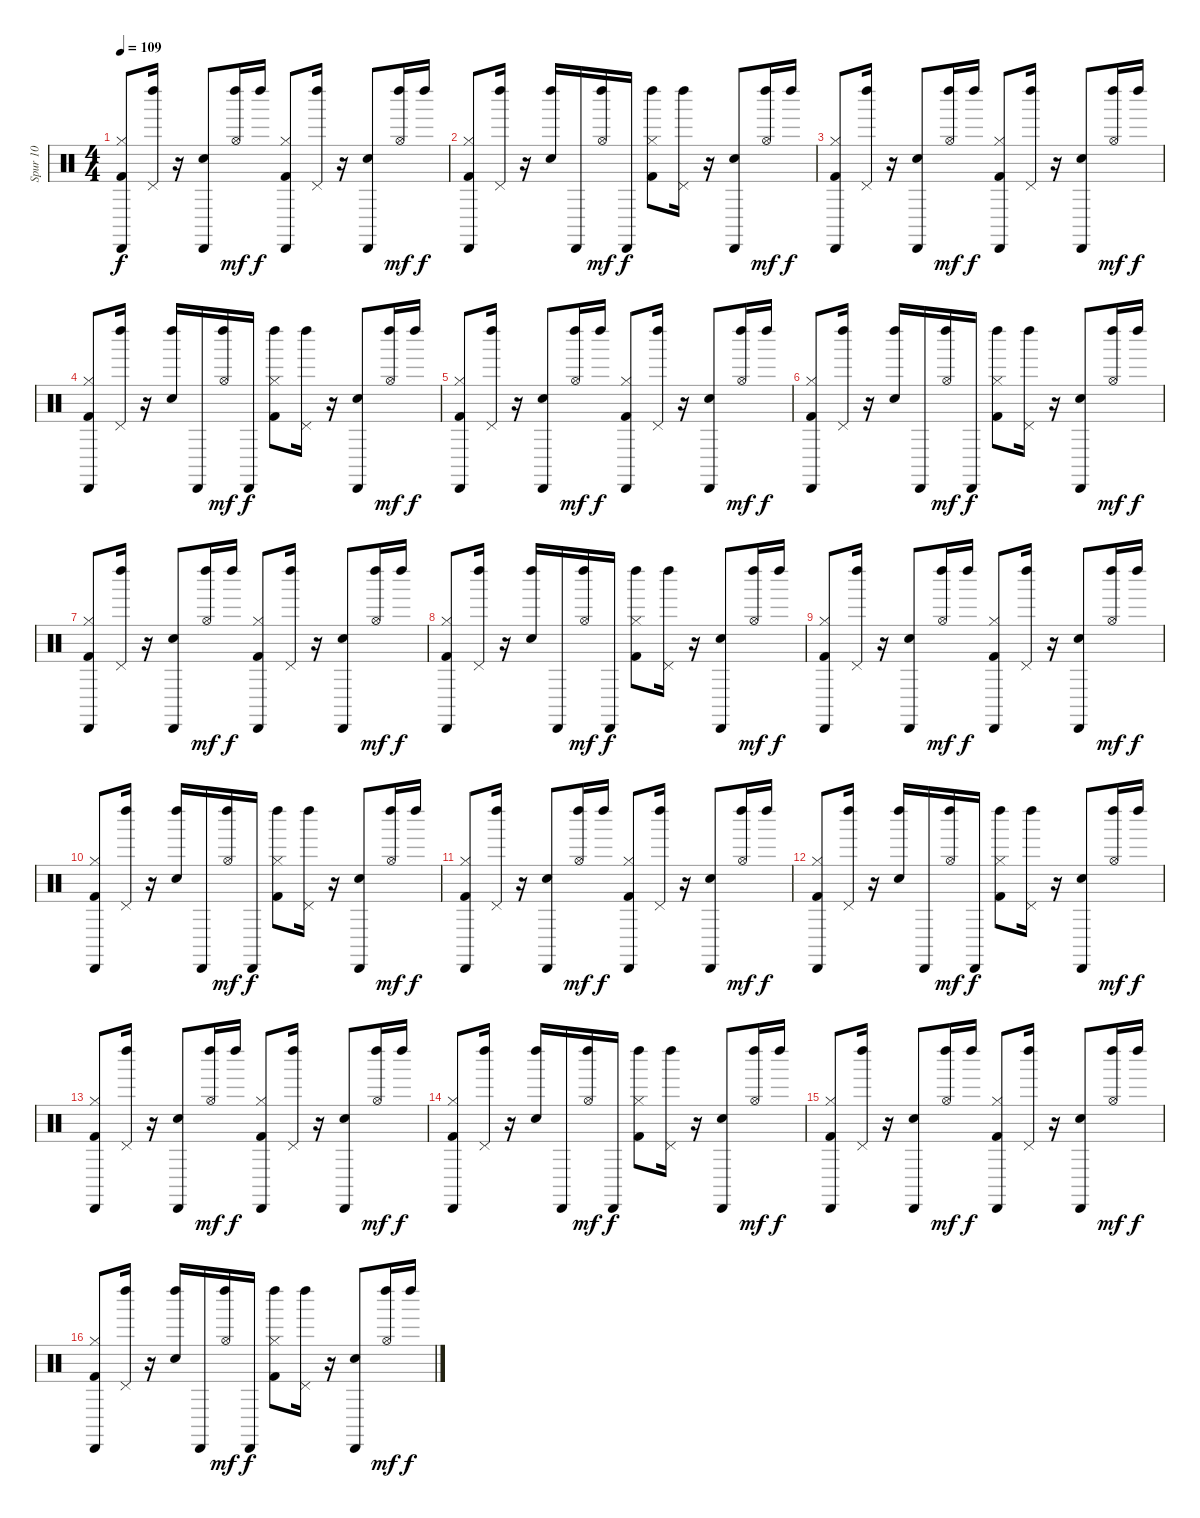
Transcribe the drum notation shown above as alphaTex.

\track ("Spur 10" "Spur 10") {instrument percussion}
\staff {score}
\articulation defaults
\ts (4 4)
\tempo 109
\clef neutral
\ks c
("Kick (hit) 2" "Hi-Hat (closed)" "Cabasa (hit)").8{dy f} ("Left Maraca (hit)" "Pedal Hi-Hat (hit)").16 r.16 ("Snare (hit) 2" "Cabasa (hit)").8 ("Left Maraca (hit)" "Hi-Hat (open)").16{dy mf} "Left Maraca (hit)".16{dy f} ("Kick (hit) 2" "Cabasa (hit)" "Hi-Hat (closed)").8 ("Pedal Hi-Hat (hit)" "Left Maraca (hit)").16 r.16 ("Snare (hit) 2" "Cabasa (hit)").8 ("Left Maraca (hit)" "Hi-Hat (open)").16{dy mf} "Left Maraca (hit)".16{dy f} |
("Kick (hit) 2" "Hi-Hat (closed)" "Cabasa (hit)").8 ("Pedal Hi-Hat (hit)" "Left Maraca (hit)").16 r.16 ("Snare (hit) 2" "Left Maraca (hit)").16 "Cabasa (hit)".16 ("Hi-Hat (open)" "Left Maraca (hit)").16{dy mf} "Cabasa (hit)".16{dy f} ("Kick (hit) 2" "Left Maraca (hit)" "Hi-Hat (closed)").8 ("Left Maraca (hit)" "Pedal Hi-Hat (hit)").16 r.16 ("Snare (hit) 2" "Cabasa (hit)").8 ("Left Maraca (hit)" "Hi-Hat (open)").16{dy mf} "Left Maraca (hit)".16{dy f} |
("Kick (hit) 2" "Hi-Hat (closed)" "Cabasa (hit)").8 ("Left Maraca (hit)" "Pedal Hi-Hat (hit)").16 r.16 ("Snare (hit) 2" "Cabasa (hit)").8 ("Left Maraca (hit)" "Hi-Hat (open)").16{dy mf} "Left Maraca (hit)".16{dy f} ("Kick (hit) 2" "Cabasa (hit)" "Hi-Hat (closed)").8 ("Pedal Hi-Hat (hit)" "Left Maraca (hit)").16 r.16 ("Snare (hit) 2" "Cabasa (hit)").8 ("Left Maraca (hit)" "Hi-Hat (open)").16{dy mf} "Left Maraca (hit)".16{dy f} |
("Kick (hit) 2" "Hi-Hat (closed)" "Cabasa (hit)").8 ("Pedal Hi-Hat (hit)" "Left Maraca (hit)").16 r.16 ("Snare (hit) 2" "Left Maraca (hit)").16 "Cabasa (hit)".16 ("Hi-Hat (open)" "Left Maraca (hit)").16{dy mf} "Cabasa (hit)".16{dy f} ("Kick (hit) 2" "Left Maraca (hit)" "Hi-Hat (closed)").8 ("Left Maraca (hit)" "Pedal Hi-Hat (hit)").16 r.16 ("Snare (hit) 2" "Cabasa (hit)").8 ("Left Maraca (hit)" "Hi-Hat (open)").16{dy mf} "Left Maraca (hit)".16{dy f} |
("Kick (hit) 2" "Hi-Hat (closed)" "Cabasa (hit)").8 ("Left Maraca (hit)" "Pedal Hi-Hat (hit)").16 r.16 ("Snare (hit) 2" "Cabasa (hit)").8 ("Left Maraca (hit)" "Hi-Hat (open)").16{dy mf} "Left Maraca (hit)".16{dy f} ("Kick (hit) 2" "Cabasa (hit)" "Hi-Hat (closed)").8 ("Pedal Hi-Hat (hit)" "Left Maraca (hit)").16 r.16 ("Snare (hit) 2" "Cabasa (hit)").8 ("Left Maraca (hit)" "Hi-Hat (open)").16{dy mf} "Left Maraca (hit)".16{dy f} |
("Kick (hit) 2" "Hi-Hat (closed)" "Cabasa (hit)").8 ("Pedal Hi-Hat (hit)" "Left Maraca (hit)").16 r.16 ("Snare (hit) 2" "Left Maraca (hit)").16 "Cabasa (hit)".16 ("Hi-Hat (open)" "Left Maraca (hit)").16{dy mf} "Cabasa (hit)".16{dy f} ("Kick (hit) 2" "Left Maraca (hit)" "Hi-Hat (closed)").8 ("Left Maraca (hit)" "Pedal Hi-Hat (hit)").16 r.16 ("Snare (hit) 2" "Cabasa (hit)").8 ("Left Maraca (hit)" "Hi-Hat (open)").16{dy mf} "Left Maraca (hit)".16{dy f} |
("Kick (hit) 2" "Hi-Hat (closed)" "Cabasa (hit)").8 ("Left Maraca (hit)" "Pedal Hi-Hat (hit)").16 r.16 ("Snare (hit) 2" "Cabasa (hit)").8 ("Left Maraca (hit)" "Hi-Hat (open)").16{dy mf} "Left Maraca (hit)".16{dy f} ("Kick (hit) 2" "Cabasa (hit)" "Hi-Hat (closed)").8 ("Pedal Hi-Hat (hit)" "Left Maraca (hit)").16 r.16 ("Snare (hit) 2" "Cabasa (hit)").8 ("Left Maraca (hit)" "Hi-Hat (open)").16{dy mf} "Left Maraca (hit)".16{dy f} |
("Kick (hit) 2" "Hi-Hat (closed)" "Cabasa (hit)").8 ("Pedal Hi-Hat (hit)" "Left Maraca (hit)").16 r.16 ("Snare (hit) 2" "Left Maraca (hit)").16 "Cabasa (hit)".16 ("Hi-Hat (open)" "Left Maraca (hit)").16{dy mf} "Cabasa (hit)".16{dy f} ("Kick (hit) 2" "Left Maraca (hit)" "Hi-Hat (closed)").8 ("Left Maraca (hit)" "Pedal Hi-Hat (hit)").16 r.16 ("Snare (hit) 2" "Cabasa (hit)").8 ("Left Maraca (hit)" "Hi-Hat (open)").16{dy mf} "Left Maraca (hit)".16{dy f} |
("Kick (hit) 2" "Hi-Hat (closed)" "Cabasa (hit)").8 ("Left Maraca (hit)" "Pedal Hi-Hat (hit)").16 r.16 ("Snare (hit) 2" "Cabasa (hit)").8 ("Left Maraca (hit)" "Hi-Hat (open)").16{dy mf} "Left Maraca (hit)".16{dy f} ("Kick (hit) 2" "Cabasa (hit)" "Hi-Hat (closed)").8 ("Pedal Hi-Hat (hit)" "Left Maraca (hit)").16 r.16 ("Snare (hit) 2" "Cabasa (hit)").8 ("Left Maraca (hit)" "Hi-Hat (open)").16{dy mf} "Left Maraca (hit)".16{dy f} |
("Kick (hit) 2" "Hi-Hat (closed)" "Cabasa (hit)").8 ("Pedal Hi-Hat (hit)" "Left Maraca (hit)").16 r.16 ("Snare (hit) 2" "Left Maraca (hit)").16 "Cabasa (hit)".16 ("Hi-Hat (open)" "Left Maraca (hit)").16{dy mf} "Cabasa (hit)".16{dy f} ("Kick (hit) 2" "Left Maraca (hit)" "Hi-Hat (closed)").8 ("Left Maraca (hit)" "Pedal Hi-Hat (hit)").16 r.16 ("Snare (hit) 2" "Cabasa (hit)").8 ("Left Maraca (hit)" "Hi-Hat (open)").16{dy mf} "Left Maraca (hit)".16{dy f} |
("Kick (hit) 2" "Hi-Hat (closed)" "Cabasa (hit)").8 ("Left Maraca (hit)" "Pedal Hi-Hat (hit)").16 r.16 ("Snare (hit) 2" "Cabasa (hit)").8 ("Left Maraca (hit)" "Hi-Hat (open)").16{dy mf} "Left Maraca (hit)".16{dy f} ("Kick (hit) 2" "Cabasa (hit)" "Hi-Hat (closed)").8 ("Pedal Hi-Hat (hit)" "Left Maraca (hit)").16 r.16 ("Snare (hit) 2" "Cabasa (hit)").8 ("Left Maraca (hit)" "Hi-Hat (open)").16{dy mf} "Left Maraca (hit)".16{dy f} |
("Kick (hit) 2" "Hi-Hat (closed)" "Cabasa (hit)").8 ("Pedal Hi-Hat (hit)" "Left Maraca (hit)").16 r.16 ("Snare (hit) 2" "Left Maraca (hit)").16 "Cabasa (hit)".16 ("Hi-Hat (open)" "Left Maraca (hit)").16{dy mf} "Cabasa (hit)".16{dy f} ("Kick (hit) 2" "Left Maraca (hit)" "Hi-Hat (closed)").8 ("Left Maraca (hit)" "Pedal Hi-Hat (hit)").16 r.16 ("Snare (hit) 2" "Cabasa (hit)").8 ("Left Maraca (hit)" "Hi-Hat (open)").16{dy mf} "Left Maraca (hit)".16{dy f} |
("Kick (hit) 2" "Hi-Hat (closed)" "Cabasa (hit)").8 ("Left Maraca (hit)" "Pedal Hi-Hat (hit)").16 r.16 ("Snare (hit) 2" "Cabasa (hit)").8 ("Left Maraca (hit)" "Hi-Hat (open)").16{dy mf} "Left Maraca (hit)".16{dy f} ("Kick (hit) 2" "Cabasa (hit)" "Hi-Hat (closed)").8 ("Pedal Hi-Hat (hit)" "Left Maraca (hit)").16 r.16 ("Snare (hit) 2" "Cabasa (hit)").8 ("Left Maraca (hit)" "Hi-Hat (open)").16{dy mf} "Left Maraca (hit)".16{dy f} |
("Kick (hit) 2" "Hi-Hat (closed)" "Cabasa (hit)").8 ("Pedal Hi-Hat (hit)" "Left Maraca (hit)").16 r.16 ("Snare (hit) 2" "Left Maraca (hit)").16 "Cabasa (hit)".16 ("Hi-Hat (open)" "Left Maraca (hit)").16{dy mf} "Cabasa (hit)".16{dy f} ("Kick (hit) 2" "Left Maraca (hit)" "Hi-Hat (closed)").8 ("Left Maraca (hit)" "Pedal Hi-Hat (hit)").16 r.16 ("Snare (hit) 2" "Cabasa (hit)").8 ("Left Maraca (hit)" "Hi-Hat (open)").16{dy mf} "Left Maraca (hit)".16{dy f} |
("Kick (hit) 2" "Hi-Hat (closed)" "Cabasa (hit)").8 ("Left Maraca (hit)" "Pedal Hi-Hat (hit)").16 r.16 ("Snare (hit) 2" "Cabasa (hit)").8 ("Left Maraca (hit)" "Hi-Hat (open)").16{dy mf} "Left Maraca (hit)".16{dy f} ("Kick (hit) 2" "Cabasa (hit)" "Hi-Hat (closed)").8 ("Pedal Hi-Hat (hit)" "Left Maraca (hit)").16 r.16 ("Snare (hit) 2" "Cabasa (hit)").8 ("Left Maraca (hit)" "Hi-Hat (open)").16{dy mf} "Left Maraca (hit)".16{dy f} |
("Kick (hit) 2" "Hi-Hat (closed)" "Cabasa (hit)").8 ("Pedal Hi-Hat (hit)" "Left Maraca (hit)").16 r.16 ("Snare (hit) 2" "Left Maraca (hit)").16 "Cabasa (hit)".16 ("Hi-Hat (open)" "Left Maraca (hit)").16{dy mf} "Cabasa (hit)".16{dy f} ("Kick (hit) 2" "Left Maraca (hit)" "Hi-Hat (closed)").8 ("Left Maraca (hit)" "Pedal Hi-Hat (hit)").16 r.16 ("Snare (hit) 2" "Cabasa (hit)").8 ("Left Maraca (hit)" "Hi-Hat (open)").16{dy mf} "Left Maraca (hit)".16{dy f}
